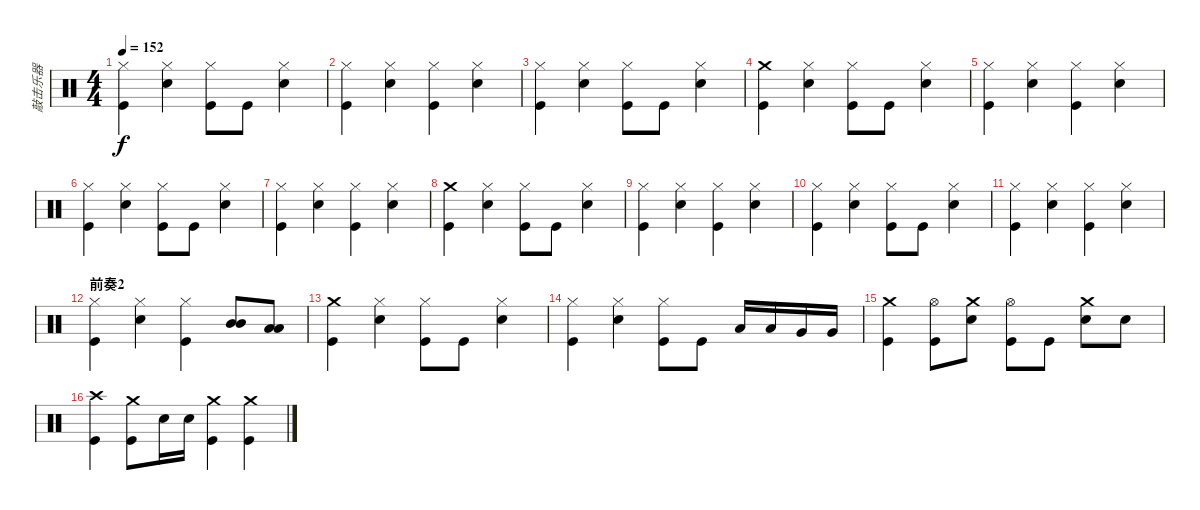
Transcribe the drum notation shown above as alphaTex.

\track ("敲击乐器" "敲击乐器") {instrument percussion}
\staff {score}
\articulation defaults
\ts (4 4)
\tempo 152
\clef neutral
\ks c
("Hi-Hat (closed)" "Kick (hit)").4{dy f} ("Hi-Hat (closed)" "Electric Snare (hit)").4 ("Hi-Hat (closed)" "Kick (hit)").8 "Kick (hit)".8 ("Hi-Hat (closed)" "Electric Snare (hit)").4 |
("Hi-Hat (closed)" "Kick (hit)").4 ("Hi-Hat (closed)" "Electric Snare (hit)").4 ("Hi-Hat (closed)" "Kick (hit)").4 ("Hi-Hat (closed)" "Electric Snare (hit)").4 |
("Hi-Hat (closed)" "Kick (hit)").4 ("Hi-Hat (closed)" "Electric Snare (hit)").4 ("Hi-Hat (closed)" "Kick (hit)").8 "Kick (hit)".8 ("Hi-Hat (closed)" "Electric Snare (hit)").4 |
("Crash medium (hit)" "Kick (hit)").4 ("Hi-Hat (closed)" "Electric Snare (hit)").4 ("Hi-Hat (closed)" "Kick (hit)").8 "Kick (hit)".8 ("Hi-Hat (closed)" "Electric Snare (hit)").4 |
("Hi-Hat (closed)" "Kick (hit)").4 ("Hi-Hat (closed)" "Electric Snare (hit)").4 ("Hi-Hat (closed)" "Kick (hit)").4 ("Hi-Hat (closed)" "Electric Snare (hit)").4 |
("Hi-Hat (closed)" "Kick (hit)").4 ("Hi-Hat (closed)" "Electric Snare (hit)").4 ("Hi-Hat (closed)" "Kick (hit)").8 "Kick (hit)".8 ("Hi-Hat (closed)" "Electric Snare (hit)").4 |
("Hi-Hat (closed)" "Kick (hit)").4 ("Hi-Hat (closed)" "Electric Snare (hit)").4 ("Hi-Hat (closed)" "Kick (hit)").4 ("Hi-Hat (closed)" "Electric Snare (hit)").4 |
("Crash medium (hit)" "Kick (hit)").4 ("Hi-Hat (closed)" "Electric Snare (hit)").4 ("Hi-Hat (closed)" "Kick (hit)").8 "Kick (hit)".8 ("Hi-Hat (closed)" "Electric Snare (hit)").4 |
("Hi-Hat (closed)" "Kick (hit)").4 ("Hi-Hat (closed)" "Electric Snare (hit)").4 ("Hi-Hat (closed)" "Kick (hit)").4 ("Hi-Hat (closed)" "Electric Snare (hit)").4 |
("Hi-Hat (closed)" "Kick (hit)").4 ("Hi-Hat (closed)" "Electric Snare (hit)").4 ("Hi-Hat (closed)" "Kick (hit)").8 "Kick (hit)".8 ("Hi-Hat (closed)" "Electric Snare (hit)").4 |
("Hi-Hat (closed)" "Kick (hit)").4 ("Hi-Hat (closed)" "Electric Snare (hit)").4 ("Hi-Hat (closed)" "Kick (hit)").4 ("Hi-Hat (closed)" "Electric Snare (hit)").4 |
\section ("" "前奏2")
("Hi-Hat (closed)" "Kick (hit)").4 ("Hi-Hat (closed)" "Electric Snare (hit)").4 ("Hi-Hat (closed)" "Kick (hit)").4 ("Mid Tom (hit)" "Mid Tom (hit)").8 ("Low Tom (hit)" "Low Tom (hit)").8 |
("Crash medium (hit)" "Kick (hit)").4 ("Hi-Hat (closed)" "Electric Snare (hit)").4 ("Hi-Hat (closed)" "Kick (hit)").8 "Kick (hit)".8 ("Hi-Hat (closed)" "Electric Snare (hit)").4 |
("Hi-Hat (closed)" "Kick (hit)").4 ("Hi-Hat (closed)" "Electric Snare (hit)").4 ("Hi-Hat (closed)" "Kick (hit)").8 "Kick (hit)".8 "Low Tom (hit)".16 "Low Tom (hit)".16 "Very Low Tom (hit)".16 "Very Low Tom (hit)".16 |
("Crash medium (hit)" "Kick (hit)").4 ("Hi-Hat (open)" "Kick (hit)").8 ("Crash medium (hit)" "Electric Snare (hit)").8 ("Hi-Hat (open)" "Kick (hit)").8 "Kick (hit)".8 ("Crash medium (hit)" "Electric Snare (hit)").8 "Electric Snare (hit)".8 |
("Crash high (hit)" "Kick (hit)").4 ("Crash medium (hit)" "Kick (hit)").8 "Electric Snare (hit)".16 "Electric Snare (hit)".16 ("Crash medium (hit)" "Kick (hit)").4 ("Crash medium (hit)" "Kick (hit)").4
